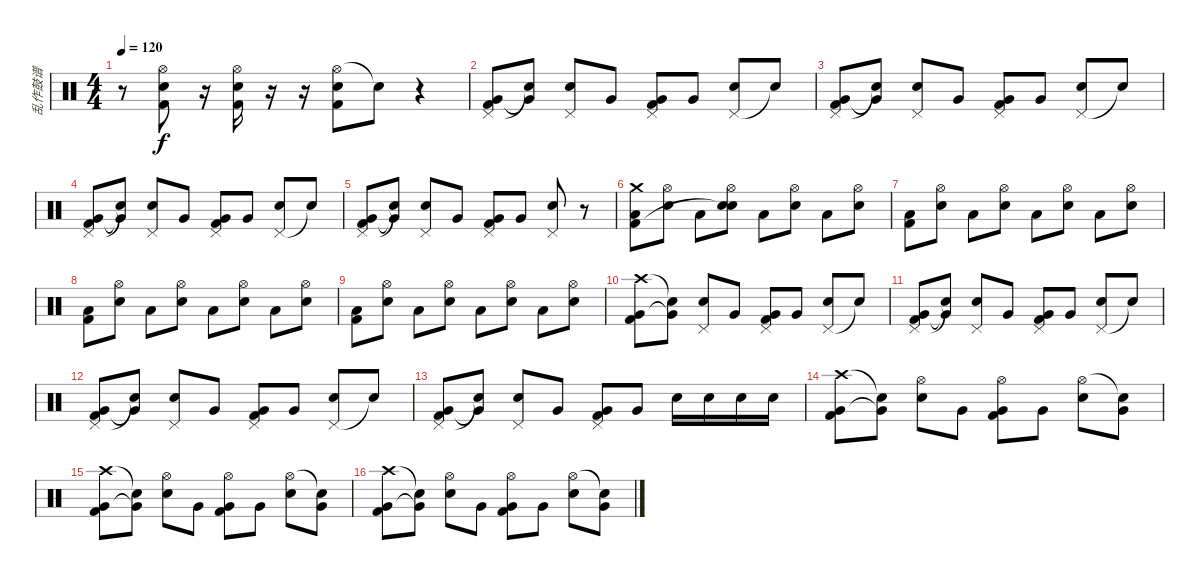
\track ("乱作鼓谱" "乱作鼓谱") {instrument percussion}
\staff {score}
\articulation defaults
\ts (4 4)
\tempo 120
\clef neutral
\ks c
r.8{dy f} ("Hi-Hat (open)" "Snare (hit) 2" "Kick (hit) 2").8 r.16 ("Hi-Hat (open)" "Snare (hit) 2" "Kick (hit) 2").16 r.16 r.16 ("Hi-Hat (open)" "Snare (hit) 2" "Kick (hit) 2").8 "Snare (hit)"{t}.8 r.4 |
("Pedal Hi-Hat (hit)" "Very Low Tom (hit)" "Kick (hit) 2").8 ("Snare (hit)"{t} "Very Low Tom (hit)"{t}).8 ("Pedal Hi-Hat (hit)" "Snare (hit) 2").8 "Very Low Tom (hit)".8 ("Pedal Hi-Hat (hit)" "Very Low Tom (hit)" "Kick (hit) 2").8 "Very Low Tom (hit)".8 ("Pedal Hi-Hat (hit)" "Snare (hit) 2").8 "Snare (hit)"{t}.8 |
("Pedal Hi-Hat (hit)" "Very Low Tom (hit)" "Kick (hit) 2").8 ("Snare (hit)"{t} "Very Low Tom (hit)"{t}).8 ("Pedal Hi-Hat (hit)" "Snare (hit) 2").8 "Very Low Tom (hit)".8 ("Pedal Hi-Hat (hit)" "Very Low Tom (hit)" "Kick (hit) 2").8 "Very Low Tom (hit)".8 ("Pedal Hi-Hat (hit)" "Snare (hit) 2").8 "Snare (hit)"{t}.8 |
("Pedal Hi-Hat (hit)" "Very Low Tom (hit)" "Kick (hit) 2").8 ("Snare (hit)"{t} "Very Low Tom (hit)"{t}).8 ("Pedal Hi-Hat (hit)" "Snare (hit) 2").8 "Very Low Tom (hit)".8 ("Pedal Hi-Hat (hit)" "Very Low Tom (hit)" "Kick (hit) 2").8 "Very Low Tom (hit)".8 ("Pedal Hi-Hat (hit)" "Snare (hit) 2").8 "Snare (hit)"{t}.8 |
("Pedal Hi-Hat (hit)" "Very Low Tom (hit)" "Kick (hit) 2").8 ("Snare (hit)"{t} "Very Low Tom (hit)"{t}).8 ("Pedal Hi-Hat (hit)" "Snare (hit) 2").8 "Very Low Tom (hit)".8 ("Pedal Hi-Hat (hit)" "Very Low Tom (hit)" "Kick (hit) 2").8 "Very Low Tom (hit)".8 ("Pedal Hi-Hat (hit)" "Snare (hit) 2").8 r.8 |
("Crash medium (hit)" "Low Tom (hit)" "Kick (hit) 2").8 ("Hi-Hat (open)" "Snare (hit) 2").8 "Low Tom (hit)".8 ("Hi-Hat (open)" "Snare (hit) 2" "Snare (hit)"{t}).8 "Low Tom (hit)".8 ("Hi-Hat (open)" "Snare (hit) 2").8 "Low Tom (hit)".8 ("Hi-Hat (open)" "Snare (hit) 2").8 |
("Low Tom (hit)" "Kick (hit) 2").8 ("Hi-Hat (open)" "Snare (hit) 2").8 "Low Tom (hit)".8 ("Hi-Hat (open)" "Snare (hit) 2").8 "Low Tom (hit)".8 ("Hi-Hat (open)" "Snare (hit) 2").8 "Low Tom (hit)".8 ("Hi-Hat (open)" "Snare (hit) 2").8 |
("Low Tom (hit)" "Kick (hit) 2").8 ("Hi-Hat (open)" "Snare (hit) 2").8 "Low Tom (hit)".8 ("Hi-Hat (open)" "Snare (hit) 2").8 "Low Tom (hit)".8 ("Hi-Hat (open)" "Snare (hit) 2").8 "Low Tom (hit)".8 ("Hi-Hat (open)" "Snare (hit) 2").8 |
("Low Tom (hit)" "Kick (hit) 2").8 ("Hi-Hat (open)" "Snare (hit) 2").8 "Low Tom (hit)".8 ("Hi-Hat (open)" "Snare (hit) 2").8 "Low Tom (hit)".8 ("Hi-Hat (open)" "Snare (hit) 2").8 "Low Tom (hit)".8 ("Hi-Hat (open)" "Snare (hit) 2").8 |
("Crash high (hit)" "Very Low Tom (hit)" "Kick (hit) 2").8 ("Snare (hit)"{t} "Very Low Tom (hit)"{t}).8 ("Pedal Hi-Hat (hit)" "Snare (hit) 2").8 "Very Low Tom (hit)".8 ("Pedal Hi-Hat (hit)" "Very Low Tom (hit)" "Kick (hit) 2").8 "Very Low Tom (hit)".8 ("Pedal Hi-Hat (hit)" "Snare (hit) 2").8 "Snare (hit)"{t}.8 |
("Pedal Hi-Hat (hit)" "Very Low Tom (hit)" "Kick (hit) 2").8 ("Snare (hit)"{t} "Very Low Tom (hit)"{t}).8 ("Pedal Hi-Hat (hit)" "Snare (hit) 2").8 "Very Low Tom (hit)".8 ("Pedal Hi-Hat (hit)" "Very Low Tom (hit)" "Kick (hit) 2").8 "Very Low Tom (hit)".8 ("Pedal Hi-Hat (hit)" "Snare (hit) 2").8 "Snare (hit)"{t}.8 |
("Pedal Hi-Hat (hit)" "Very Low Tom (hit)" "Kick (hit) 2").8 ("Snare (hit)"{t} "Very Low Tom (hit)"{t}).8 ("Pedal Hi-Hat (hit)" "Snare (hit) 2").8 "Very Low Tom (hit)".8 ("Pedal Hi-Hat (hit)" "Very Low Tom (hit)" "Kick (hit) 2").8 "Very Low Tom (hit)".8 ("Pedal Hi-Hat (hit)" "Snare (hit) 2").8 "Snare (hit)"{t}.8 |
("Pedal Hi-Hat (hit)" "Very Low Tom (hit)" "Kick (hit) 2").8 ("Snare (hit)"{t} "Very Low Tom (hit)"{t}).8 ("Pedal Hi-Hat (hit)" "Snare (hit) 2").8 "Very Low Tom (hit)".8 ("Pedal Hi-Hat (hit)" "Very Low Tom (hit)" "Kick (hit) 2").8 "Very Low Tom (hit)".8 "Snare (hit) 2".16 "Snare (hit) 2".16 "Snare (hit) 2".16 "Snare (hit) 2".16 |
("Crash high (hit)" "Very Low Tom (hit)" "Kick (hit) 2").8 ("Snare (hit)"{t} "Very Low Tom (hit)"{t}).8 ("Hi-Hat (open)" "Snare (hit) 2").8 "Very Low Tom (hit)".8 ("Hi-Hat (open)" "Very Low Tom (hit)" "Kick (hit) 2").8 "Very Low Tom (hit)".8 ("Hi-Hat (open)" "Snare (hit) 2").8 ("Snare (hit)"{t} "Very Low Tom (hit)").8 |
("Crash high (hit)" "Very Low Tom (hit)" "Kick (hit) 2").8 ("Snare (hit)"{t} "Very Low Tom (hit)"{t}).8 ("Hi-Hat (open)" "Snare (hit) 2").8 "Very Low Tom (hit)".8 ("Hi-Hat (open)" "Very Low Tom (hit)" "Kick (hit) 2").8 "Very Low Tom (hit)".8 ("Hi-Hat (open)" "Snare (hit) 2").8 ("Snare (hit)"{t} "Very Low Tom (hit)").8 |
("Crash high (hit)" "Very Low Tom (hit)" "Kick (hit) 2").8 ("Snare (hit)"{t} "Very Low Tom (hit)"{t}).8 ("Hi-Hat (open)" "Snare (hit) 2").8 "Very Low Tom (hit)".8 ("Hi-Hat (open)" "Very Low Tom (hit)" "Kick (hit) 2").8 "Very Low Tom (hit)".8 ("Hi-Hat (open)" "Snare (hit) 2").8 ("Snare (hit)"{t} "Very Low Tom (hit)").8
